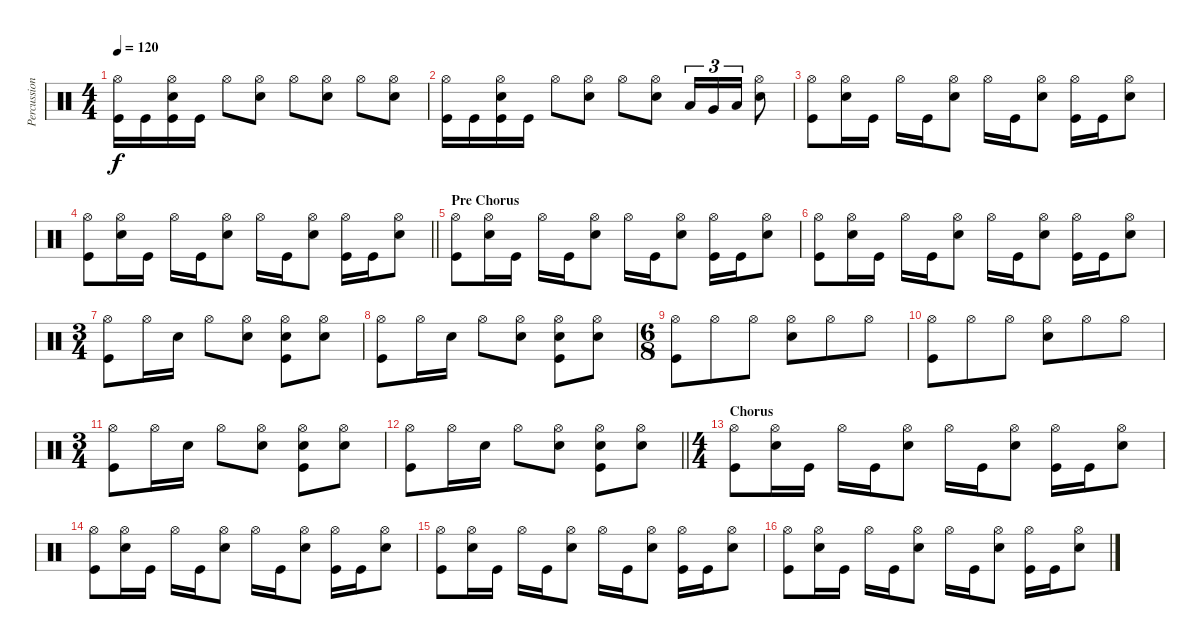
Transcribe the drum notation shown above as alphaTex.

\track ("Percussion" "Percussion") {instrument percussion}
\staff {score}
\articulation defaults
\ts (4 4)
\tempo 120
\clef neutral
\ks c
("Hi-Hat (open)" "Kick (hit)").16{dy f} "Kick (hit)".16 ("Hi-Hat (open)" "Snare (hit) 2" "Kick (hit)").16 "Kick (hit)".16 "Hi-Hat (open)".8 ("Hi-Hat (open)" "Snare (hit) 2").8 "Hi-Hat (open)".8 ("Hi-Hat (open)" "Snare (hit) 2").8 "Hi-Hat (open)".8 ("Hi-Hat (open)" "Snare (hit) 2").8 |
("Hi-Hat (open)" "Kick (hit)").16 "Kick (hit)".16 ("Hi-Hat (open)" "Snare (hit) 2" "Kick (hit)").16 "Kick (hit)".16 "Hi-Hat (open)".8 ("Hi-Hat (open)" "Snare (hit) 2").8 "Hi-Hat (open)".8 ("Hi-Hat (open)" "Snare (hit) 2").8 "Low Tom (hit)".16{tu (3 2)} "Very Low Tom (hit)".16{tu (3 2)} "Low Floor Tom (hit)".16{tu (3 2)} ("Hi-Hat (open)" "Snare (hit) 2").8 |
("Hi-Hat (open)" "Kick (hit)").8 ("Hi-Hat (open)" "Snare (hit) 2").16 "Kick (hit)".16 "Hi-Hat (open)".16 "Kick (hit)".16 ("Hi-Hat (open)" "Snare (hit) 2").8 "Hi-Hat (open)".16 "Kick (hit)".16 ("Hi-Hat (open)" "Snare (hit) 2").8 ("Hi-Hat (open)" "Kick (hit)").16 "Kick (hit)".16 ("Hi-Hat (open)" "Snare (hit) 2").8 |
\barLineRight lightlight
("Hi-Hat (open)" "Kick (hit)").8 ("Hi-Hat (open)" "Snare (hit) 2").16 "Kick (hit)".16 "Hi-Hat (open)".16 "Kick (hit)".16 ("Hi-Hat (open)" "Snare (hit) 2").8 "Hi-Hat (open)".16 "Kick (hit)".16 ("Hi-Hat (open)" "Snare (hit) 2").8 ("Hi-Hat (open)" "Kick (hit)").16 "Kick (hit)".16 ("Hi-Hat (open)" "Snare (hit) 2").8 |
\section ("" "Pre Chorus")
("Hi-Hat (open)" "Kick (hit)").8 ("Hi-Hat (open)" "Snare (hit) 2").16 "Kick (hit)".16 "Hi-Hat (open)".16 "Kick (hit)".16 ("Hi-Hat (open)" "Snare (hit) 2").8 "Hi-Hat (open)".16 "Kick (hit)".16 ("Hi-Hat (open)" "Snare (hit) 2").8 ("Hi-Hat (open)" "Kick (hit)").16 "Kick (hit)".16 ("Hi-Hat (open)" "Snare (hit) 2").8 |
("Hi-Hat (open)" "Kick (hit)").8 ("Hi-Hat (open)" "Snare (hit) 2").16 "Kick (hit)".16 "Hi-Hat (open)".16 "Kick (hit)".16 ("Hi-Hat (open)" "Snare (hit) 2").8 "Hi-Hat (open)".16 "Kick (hit)".16 ("Hi-Hat (open)" "Snare (hit) 2").8 ("Hi-Hat (open)" "Kick (hit)").16 "Kick (hit)".16 ("Hi-Hat (open)" "Snare (hit) 2").8 |
\ts (3 4)
("Hi-Hat (open)" "Kick (hit)").8 "Hi-Hat (open)".16 "Snare (hit) 2".16 "Hi-Hat (open)".8 ("Hi-Hat (open)" "Snare (hit) 2").8 ("Hi-Hat (open)" "Snare (hit) 2" "Kick (hit)").8 ("Hi-Hat (open)" "Snare (hit) 2").8 |
("Hi-Hat (open)" "Kick (hit)").8 "Hi-Hat (open)".16 "Snare (hit) 2".16 "Hi-Hat (open)".8 ("Hi-Hat (open)" "Snare (hit) 2").8 ("Hi-Hat (open)" "Snare (hit) 2" "Kick (hit)").8 ("Hi-Hat (open)" "Snare (hit) 2").8 |
\ts (6 8)
("Hi-Hat (open)" "Kick (hit)").8 "Hi-Hat (open)".8 "Hi-Hat (open)".8 ("Hi-Hat (open)" "Snare (hit) 2").8 "Hi-Hat (open)".8 "Hi-Hat (open)".8 |
("Hi-Hat (open)" "Kick (hit)").8 "Hi-Hat (open)".8 "Hi-Hat (open)".8 ("Hi-Hat (open)" "Snare (hit) 2").8 "Hi-Hat (open)".8 "Hi-Hat (open)".8 |
\ts (3 4)
("Hi-Hat (open)" "Kick (hit)").8 "Hi-Hat (open)".16 "Snare (hit) 2".16 "Hi-Hat (open)".8 ("Hi-Hat (open)" "Snare (hit) 2").8 ("Hi-Hat (open)" "Snare (hit) 2" "Kick (hit)").8 ("Hi-Hat (open)" "Snare (hit) 2").8 |
\barLineRight lightlight
("Hi-Hat (open)" "Kick (hit)").8 "Hi-Hat (open)".16 "Snare (hit) 2".16 "Hi-Hat (open)".8 ("Hi-Hat (open)" "Snare (hit) 2").8 ("Hi-Hat (open)" "Snare (hit) 2" "Kick (hit)").8 ("Hi-Hat (open)" "Snare (hit) 2").8 |
\ts (4 4)
\section ("" "Chorus")
("Hi-Hat (open)" "Kick (hit)").8 ("Hi-Hat (open)" "Snare (hit) 2").16 "Kick (hit)".16 "Hi-Hat (open)".16 "Kick (hit)".16 ("Hi-Hat (open)" "Snare (hit) 2").8 "Hi-Hat (open)".16 "Kick (hit)".16 ("Hi-Hat (open)" "Snare (hit) 2").8 ("Hi-Hat (open)" "Kick (hit)").16 "Kick (hit)".16 ("Hi-Hat (open)" "Snare (hit) 2").8 |
("Hi-Hat (open)" "Kick (hit)").8 ("Hi-Hat (open)" "Snare (hit) 2").16 "Kick (hit)".16 "Hi-Hat (open)".16 "Kick (hit)".16 ("Hi-Hat (open)" "Snare (hit) 2").8 "Hi-Hat (open)".16 "Kick (hit)".16 ("Hi-Hat (open)" "Snare (hit) 2").8 ("Hi-Hat (open)" "Kick (hit)").16 "Kick (hit)".16 ("Hi-Hat (open)" "Snare (hit) 2").8 |
("Hi-Hat (open)" "Kick (hit)").8 ("Hi-Hat (open)" "Snare (hit) 2").16 "Kick (hit)".16 "Hi-Hat (open)".16 "Kick (hit)".16 ("Hi-Hat (open)" "Snare (hit) 2").8 "Hi-Hat (open)".16 "Kick (hit)".16 ("Hi-Hat (open)" "Snare (hit) 2").8 ("Hi-Hat (open)" "Kick (hit)").16 "Kick (hit)".16 ("Hi-Hat (open)" "Snare (hit) 2").8 |
("Hi-Hat (open)" "Kick (hit)").8 ("Hi-Hat (open)" "Snare (hit) 2").16 "Kick (hit)".16 "Hi-Hat (open)".16 "Kick (hit)".16 ("Hi-Hat (open)" "Snare (hit) 2").8 "Hi-Hat (open)".16 "Kick (hit)".16 ("Hi-Hat (open)" "Snare (hit) 2").8 ("Hi-Hat (open)" "Kick (hit)").16 "Kick (hit)".16 ("Hi-Hat (open)" "Snare (hit) 2").8
